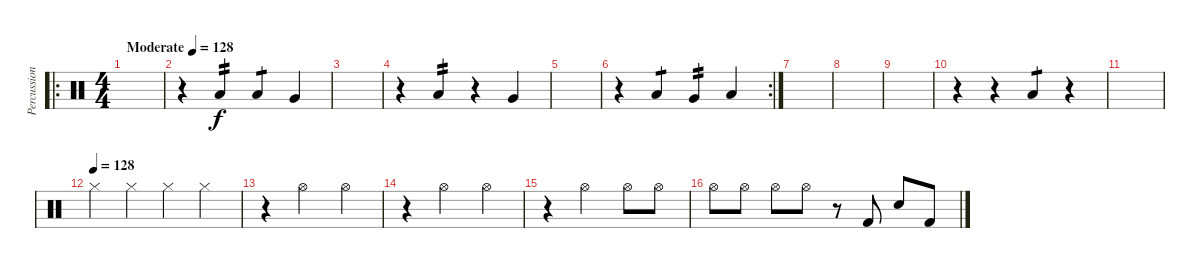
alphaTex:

\track ("Percussion" "Percussion") {instrument percussion}
\staff {score}
\articulation defaults
\ro
\ts (4 4)
\tempo (128 "Moderate")
\tempo 80
\tempo (128 "Moderate")
\clef neutral
\ks c
|
r.4 "Low Floor Tom (hit)".4{tp 2} "Low Floor Tom (hit)".4{tp 1} "Very Low Tom (hit)".4 |
|
r.4 "Low Floor Tom (hit)".4{tp 2} r.4 "Very Low Tom (hit)".4 |
|
\rc 2
r.4 "Low Tom (hit)".4{tp 1} "Very Low Tom (hit)".4{tp 2} "Low Floor Tom (hit)".4 |
|
|
|
r.4 r.4 "Low Floor Tom (hit)".4{tp 1} r.4 |
|
\tempo (128)
"Hi-Hat (closed)".4 "Hi-Hat (closed)".4 "Hi-Hat (closed)".4 "Hi-Hat (closed)".4 |
r.4 "Hi-Hat (open)".2 "Hi-Hat (open)".4 |
r.4 "Hi-Hat (open)".2 "Hi-Hat (open)".4 |
r.4 "Hi-Hat (open)".2 "Hi-Hat (open)".8 "Hi-Hat (open)".8 |
"Hi-Hat (open)".8 "Hi-Hat (open)".8 "Hi-Hat (open)".8 "Hi-Hat (open)".8 r.8 "Kick (hit) 2".8 "Snare (hit) 2".8 "Kick (hit) 2".8
